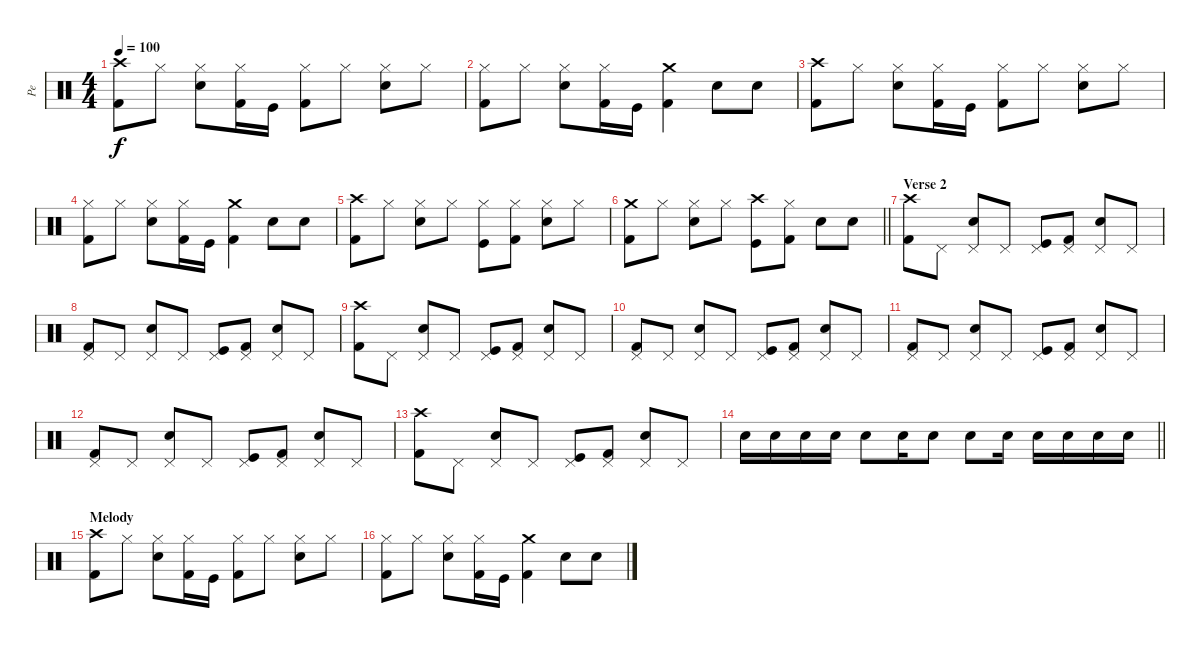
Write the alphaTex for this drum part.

\track ("Pe" "Pe") {instrument percussion}
\staff {score}
\articulation defaults
\ts (4 4)
\tempo 100
\clef neutral
\ks c
("Kick (hit) 2" "Crash high (hit)").8{dy f} "Hi-Hat (closed)".8 ("Electric Snare (hit)" "Hi-Hat (closed)").8 ("Kick (hit) 2" "Hi-Hat (closed)").16 "Kick (hit)".16 ("Kick (hit) 2" "Hi-Hat (closed)").8 "Hi-Hat (closed)".8 ("Electric Snare (hit)" "Hi-Hat (closed)").8 "Hi-Hat (closed)".8 |
("Kick (hit) 2" "Hi-Hat (closed)").8 "Hi-Hat (closed)".8 ("Electric Snare (hit)" "Hi-Hat (closed)").8 ("Kick (hit) 2" "Hi-Hat (closed)").16 "Kick (hit)".16 ("Kick (hit) 2" "Crash medium (hit)").4 "Electric Snare (hit)".8 "Electric Snare (hit)".8 |
("Kick (hit) 2" "Crash high (hit)").8 "Hi-Hat (closed)".8 ("Electric Snare (hit)" "Hi-Hat (closed)").8 ("Kick (hit) 2" "Hi-Hat (closed)").16 "Kick (hit)".16 ("Kick (hit) 2" "Hi-Hat (closed)").8 "Hi-Hat (closed)".8 ("Electric Snare (hit)" "Hi-Hat (closed)").8 "Hi-Hat (closed)".8 |
("Kick (hit) 2" "Hi-Hat (closed)").8 "Hi-Hat (closed)".8 ("Electric Snare (hit)" "Hi-Hat (closed)").8 ("Kick (hit) 2" "Hi-Hat (closed)").16 "Kick (hit)".16 ("Kick (hit) 2" "Crash medium (hit)").4 "Electric Snare (hit)".8 "Electric Snare (hit)".8 |
("Kick (hit) 2" "Crash high (hit)").8 "Hi-Hat (closed)".8 ("Electric Snare (hit)" "Hi-Hat (closed)").8 "Hi-Hat (closed)".8 ("Kick (hit)" "Hi-Hat (closed)").8 ("Kick (hit) 2" "Hi-Hat (closed)").8 ("Electric Snare (hit)" "Hi-Hat (closed)").8 "Hi-Hat (closed)".8 |
\barLineRight lightlight
("Kick (hit) 2" "Crash medium (hit)").8 "Hi-Hat (closed)".8 ("Electric Snare (hit)" "Hi-Hat (closed)").8 "Hi-Hat (closed)".8 ("Kick (hit)" "Crash high (hit)").8 ("Kick (hit) 2" "Hi-Hat (closed)").8 "Electric Snare (hit)".8 "Electric Snare (hit)".8 |
\section ("" "Verse 2")
("Kick (hit) 2" "Crash high (hit)").8 "Pedal Hi-Hat (hit)".8 ("Electric Snare (hit)" "Pedal Hi-Hat (hit)").8 "Pedal Hi-Hat (hit)".8 ("Kick (hit)" "Pedal Hi-Hat (hit)").8 ("Kick (hit) 2" "Pedal Hi-Hat (hit)").8 ("Electric Snare (hit)" "Pedal Hi-Hat (hit)").8 "Pedal Hi-Hat (hit)".8 |
("Kick (hit) 2" "Pedal Hi-Hat (hit)").8 "Pedal Hi-Hat (hit)".8 ("Electric Snare (hit)" "Pedal Hi-Hat (hit)").8 "Pedal Hi-Hat (hit)".8 ("Kick (hit)" "Pedal Hi-Hat (hit)").8 ("Kick (hit) 2" "Pedal Hi-Hat (hit)").8 ("Electric Snare (hit)" "Pedal Hi-Hat (hit)").8 "Pedal Hi-Hat (hit)".8 |
("Kick (hit) 2" "Crash high (hit)").8 "Pedal Hi-Hat (hit)".8 ("Electric Snare (hit)" "Pedal Hi-Hat (hit)").8 "Pedal Hi-Hat (hit)".8 ("Kick (hit)" "Pedal Hi-Hat (hit)").8 ("Kick (hit) 2" "Pedal Hi-Hat (hit)").8 ("Electric Snare (hit)" "Pedal Hi-Hat (hit)").8 "Pedal Hi-Hat (hit)".8 |
("Kick (hit) 2" "Pedal Hi-Hat (hit)").8 "Pedal Hi-Hat (hit)".8 ("Electric Snare (hit)" "Pedal Hi-Hat (hit)").8 "Pedal Hi-Hat (hit)".8 ("Kick (hit)" "Pedal Hi-Hat (hit)").8 ("Kick (hit) 2" "Pedal Hi-Hat (hit)").8 ("Electric Snare (hit)" "Pedal Hi-Hat (hit)").8 "Pedal Hi-Hat (hit)".8 |
("Kick (hit) 2" "Pedal Hi-Hat (hit)").8 "Pedal Hi-Hat (hit)".8 ("Electric Snare (hit)" "Pedal Hi-Hat (hit)").8 "Pedal Hi-Hat (hit)".8 ("Kick (hit)" "Pedal Hi-Hat (hit)").8 ("Kick (hit) 2" "Pedal Hi-Hat (hit)").8 ("Electric Snare (hit)" "Pedal Hi-Hat (hit)").8 "Pedal Hi-Hat (hit)".8 |
("Kick (hit) 2" "Pedal Hi-Hat (hit)").8 "Pedal Hi-Hat (hit)".8 ("Electric Snare (hit)" "Pedal Hi-Hat (hit)").8 "Pedal Hi-Hat (hit)".8 ("Kick (hit)" "Pedal Hi-Hat (hit)").8 ("Kick (hit) 2" "Pedal Hi-Hat (hit)").8 ("Electric Snare (hit)" "Pedal Hi-Hat (hit)").8 "Pedal Hi-Hat (hit)".8 |
("Kick (hit) 2" "Crash high (hit)").8 "Pedal Hi-Hat (hit)".8 ("Electric Snare (hit)" "Pedal Hi-Hat (hit)").8 "Pedal Hi-Hat (hit)".8 ("Kick (hit)" "Pedal Hi-Hat (hit)").8 ("Kick (hit) 2" "Pedal Hi-Hat (hit)").8 ("Electric Snare (hit)" "Pedal Hi-Hat (hit)").8 "Pedal Hi-Hat (hit)".8 |
\barLineRight lightlight "Electric Snare (hit)".16 "Electric Snare (hit)".16 "Electric Snare (hit)".16 "Electric Snare (hit)".16 "Electric Snare (hit)".8 "Electric Snare (hit)".16 "Electric Snare (hit)".8 "Electric Snare (hit)".8 "Electric Snare (hit)".16 "Electric Snare (hit)".16 "Electric Snare (hit)".16 "Electric Snare (hit)".16 "Electric Snare (hit)".16
|
\section ("" "Melody")
("Kick (hit) 2" "Crash high (hit)").8 "Hi-Hat (closed)".8 ("Electric Snare (hit)" "Hi-Hat (closed)").8 ("Kick (hit) 2" "Hi-Hat (closed)").16 "Kick (hit)".16 ("Kick (hit) 2" "Hi-Hat (closed)").8 "Hi-Hat (closed)".8 ("Electric Snare (hit)" "Hi-Hat (closed)").8 "Hi-Hat (closed)".8 |
("Kick (hit) 2" "Hi-Hat (closed)").8 "Hi-Hat (closed)".8 ("Electric Snare (hit)" "Hi-Hat (closed)").8 ("Kick (hit) 2" "Hi-Hat (closed)").16 "Kick (hit)".16 ("Kick (hit) 2" "Crash medium (hit)").4 "Electric Snare (hit)".8 "Electric Snare (hit)".8
